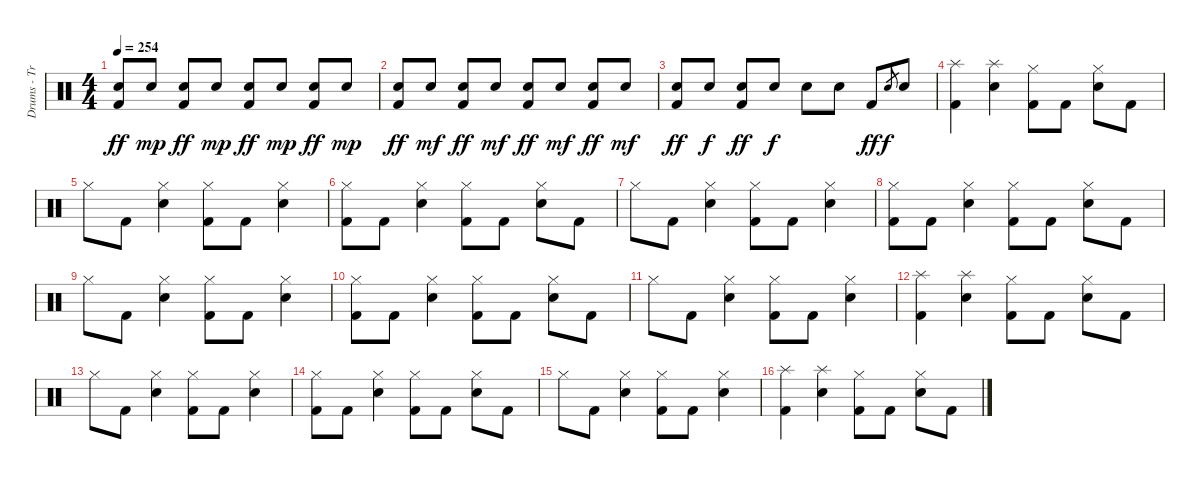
\track ("Drums - Travis Barker" "Drums - Tr") {instrument percussion}
\staff {score}
\articulation defaults
\ts (4 4)
\tempo 254
\clef neutral
\ks c
("Electric Snare (hit)" "Kick (hit) 2").8{dy ff} "Electric Snare (hit)".8{dy mp} ("Electric Snare (hit)" "Kick (hit) 2").8{dy ff} "Electric Snare (hit)".8{dy mp} ("Electric Snare (hit)" "Kick (hit) 2").8{dy ff} "Electric Snare (hit)".8{dy mp} ("Electric Snare (hit)" "Kick (hit) 2").8{dy ff} "Electric Snare (hit)".8{dy mp} |
("Electric Snare (hit)" "Kick (hit) 2").8{dy ff} "Electric Snare (hit)".8{dy mf} ("Electric Snare (hit)" "Kick (hit) 2").8{dy ff} "Electric Snare (hit)".8{dy mf} ("Electric Snare (hit)" "Kick (hit) 2").8{dy ff} "Electric Snare (hit)".8{dy mf} ("Electric Snare (hit)" "Kick (hit) 2").8{dy ff} "Electric Snare (hit)".8{dy mf} |
("Electric Snare (hit)" "Kick (hit) 2").8{dy ff} "Electric Snare (hit)".8{dy f} ("Electric Snare (hit)" "Kick (hit) 2").8{dy ff} "Electric Snare (hit)".8{dy f} "Electric Snare (hit)".8 "Electric Snare (hit)".8 "Kick (hit) 2".8{dy ff} "Electric Snare (hit)".8{gr dy f} "Electric Snare (hit)".8 |
("Splash (hit)" "Kick (hit) 2").4 ("Splash (hit)" "Electric Snare (hit)").4 ("Hi-Hat (closed)" "Kick (hit) 2").8 "Kick (hit) 2".8 ("Hi-Hat (closed)" "Electric Snare (hit)").8 "Kick (hit) 2".8 |
"Hi-Hat (closed)".8 "Kick (hit) 2".8 ("Hi-Hat (closed)" "Electric Snare (hit)").4 ("Hi-Hat (closed)" "Kick (hit) 2").8 "Kick (hit) 2".8 ("Hi-Hat (closed)" "Electric Snare (hit)").4 |
("Hi-Hat (closed)" "Kick (hit) 2").8 "Kick (hit) 2".8 ("Hi-Hat (closed)" "Electric Snare (hit)").4 ("Hi-Hat (closed)" "Kick (hit) 2").8 "Kick (hit) 2".8 ("Hi-Hat (closed)" "Electric Snare (hit)").8 "Kick (hit) 2".8 |
"Hi-Hat (closed)".8 "Kick (hit) 2".8 ("Hi-Hat (closed)" "Electric Snare (hit)").4 ("Hi-Hat (closed)" "Kick (hit) 2").8 "Kick (hit) 2".8 ("Hi-Hat (closed)" "Electric Snare (hit)").4 |
("Hi-Hat (closed)" "Kick (hit) 2").8 "Kick (hit) 2".8 ("Hi-Hat (closed)" "Electric Snare (hit)").4 ("Hi-Hat (closed)" "Kick (hit) 2").8 "Kick (hit) 2".8 ("Hi-Hat (closed)" "Electric Snare (hit)").8 "Kick (hit) 2".8 |
"Hi-Hat (closed)".8 "Kick (hit) 2".8 ("Hi-Hat (closed)" "Electric Snare (hit)").4 ("Hi-Hat (closed)" "Kick (hit) 2").8 "Kick (hit) 2".8 ("Hi-Hat (closed)" "Electric Snare (hit)").4 |
("Hi-Hat (closed)" "Kick (hit) 2").8 "Kick (hit) 2".8 ("Hi-Hat (closed)" "Electric Snare (hit)").4 ("Hi-Hat (closed)" "Kick (hit) 2").8 "Kick (hit) 2".8 ("Hi-Hat (closed)" "Electric Snare (hit)").8 "Kick (hit) 2".8 |
"Hi-Hat (closed)".8 "Kick (hit) 2".8 ("Hi-Hat (closed)" "Electric Snare (hit)").4 ("Hi-Hat (closed)" "Kick (hit) 2").8 "Kick (hit) 2".8 ("Hi-Hat (closed)" "Electric Snare (hit)").4 |
("Splash (hit)" "Kick (hit) 2").4 ("Splash (hit)" "Electric Snare (hit)").4 ("Hi-Hat (closed)" "Kick (hit) 2").8 "Kick (hit) 2".8 ("Hi-Hat (closed)" "Electric Snare (hit)").8 "Kick (hit) 2".8 |
"Hi-Hat (closed)".8 "Kick (hit) 2".8 ("Hi-Hat (closed)" "Electric Snare (hit)").4 ("Hi-Hat (closed)" "Kick (hit) 2").8 "Kick (hit) 2".8 ("Hi-Hat (closed)" "Electric Snare (hit)").4 |
("Hi-Hat (closed)" "Kick (hit) 2").8 "Kick (hit) 2".8 ("Hi-Hat (closed)" "Electric Snare (hit)").4 ("Hi-Hat (closed)" "Kick (hit) 2").8 "Kick (hit) 2".8 ("Hi-Hat (closed)" "Electric Snare (hit)").8 "Kick (hit) 2".8 |
"Hi-Hat (closed)".8 "Kick (hit) 2".8 ("Hi-Hat (closed)" "Electric Snare (hit)").4 ("Hi-Hat (closed)" "Kick (hit) 2").8 "Kick (hit) 2".8 ("Hi-Hat (closed)" "Electric Snare (hit)").4 |
("Splash (hit)" "Kick (hit) 2").4 ("Splash (hit)" "Electric Snare (hit)").4 ("Hi-Hat (closed)" "Kick (hit) 2").8 "Kick (hit) 2".8 ("Hi-Hat (closed)" "Electric Snare (hit)").8 "Kick (hit) 2".8
